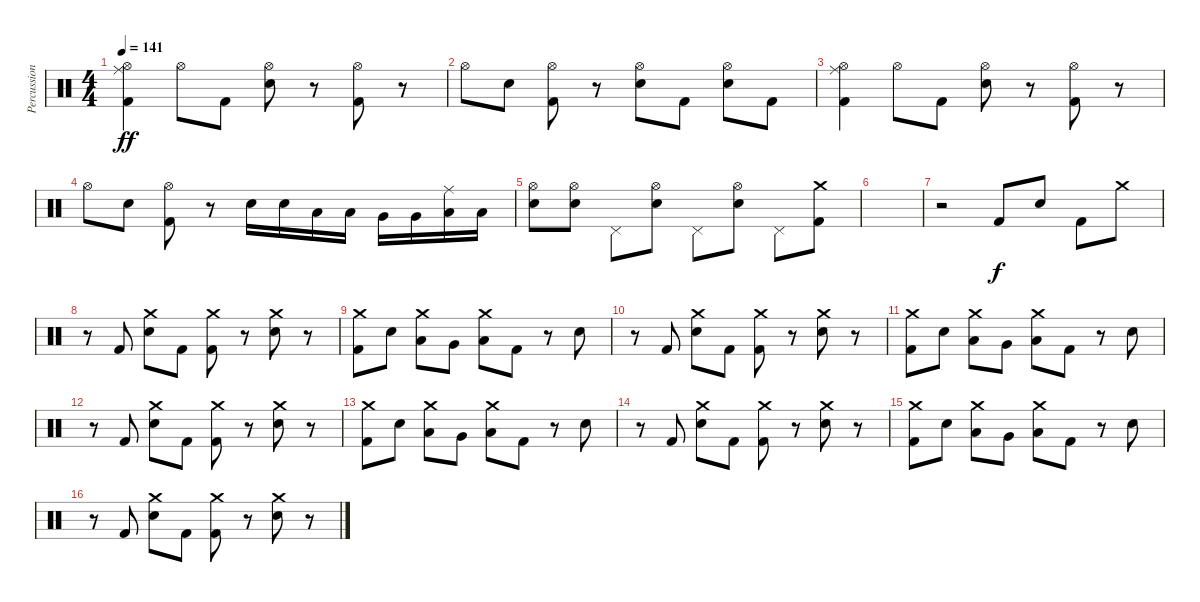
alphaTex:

\track ("Percussion" "Percussion") {instrument percussion}
\staff {score}
\articulation defaults
\ts (4 4)
\tempo 141
\clef neutral
\ks c
("Ride (middle)" "Hi-Hat (open)" "Kick (hit) 2").4{dy ff} "Hi-Hat (open)".8 "Kick (hit) 2".8 ("Hi-Hat (open)" "Electric Snare (hit)").8 r.8 ("Hi-Hat (open)" "Kick (hit) 2").8 r.8 |
"Hi-Hat (open)".8 "Electric Snare (hit)".8 ("Hi-Hat (open)" "Kick (hit) 2").8 r.8 ("Hi-Hat (open)" "Electric Snare (hit)").8 "Kick (hit) 2".8 ("Hi-Hat (open)" "Electric Snare (hit)").8 "Kick (hit) 2".8 |
("Ride (middle)" "Hi-Hat (open)" "Kick (hit) 2").4 "Hi-Hat (open)".8 "Kick (hit) 2".8 ("Hi-Hat (open)" "Electric Snare (hit)").8 r.8 ("Hi-Hat (open)" "Kick (hit) 2").8 r.8 |
"Hi-Hat (open)".8 "Electric Snare (hit)".8 ("Hi-Hat (open)" "Kick (hit) 2").8 r.8 "Electric Snare (hit)".16 "Electric Snare (hit)".16 "Low Tom (hit)".16 "Low Tom (hit)".16 "Very Low Tom (hit)".16 "Very Low Tom (hit)".16 ("Ride (middle)" "Low Floor Tom (hit)").16 "Low Floor Tom (hit)".16 |
("Hi-Hat (open)" "Electric Snare (hit)").8 ("Hi-Hat (open)" "Electric Snare (hit)").8 "Pedal Hi-Hat (hit)".8 ("Hi-Hat (open)" "Electric Snare (hit)").8 "Pedal Hi-Hat (hit)".8 ("Hi-Hat (open)" "Electric Snare (hit)").8 "Pedal Hi-Hat (hit)".8 ("Crash medium (hit)" "Kick (hit) 2").8 |
|
r.2 "Kick (hit) 2".8{dy f} "Electric Snare (hit)".8 "Kick (hit) 2".8 "Crash medium (hit)".8 |
r.8 "Kick (hit) 2".8 ("Crash medium (hit)" "Electric Snare (hit)").8 "Kick (hit) 2".8 ("Crash medium (hit)" "Kick (hit) 2").8 r.8 ("Crash medium (hit)" "Electric Snare (hit)").8 r.8 |
("Crash medium (hit)" "Kick (hit) 2").8 "Electric Snare (hit)".8 ("Crash medium (hit)" "Low Tom (hit)").8 "Very Low Tom (hit)".8 ("Crash medium (hit)" "Low Floor Tom (hit)").8 "Kick (hit) 2".8 r.8 "Electric Snare (hit)".8 |
r.8 "Kick (hit) 2".8 ("Crash medium (hit)" "Electric Snare (hit)").8 "Kick (hit) 2".8 ("Crash medium (hit)" "Kick (hit) 2").8 r.8 ("Crash medium (hit)" "Electric Snare (hit)").8 r.8 |
("Crash medium (hit)" "Kick (hit) 2").8 "Electric Snare (hit)".8 ("Crash medium (hit)" "Low Tom (hit)").8 "Very Low Tom (hit)".8 ("Crash medium (hit)" "Low Floor Tom (hit)").8 "Kick (hit) 2".8 r.8 "Electric Snare (hit)".8 |
r.8 "Kick (hit) 2".8 ("Crash medium (hit)" "Electric Snare (hit)").8 "Kick (hit) 2".8 ("Crash medium (hit)" "Kick (hit) 2").8 r.8 ("Crash medium (hit)" "Electric Snare (hit)").8 r.8 |
("Crash medium (hit)" "Kick (hit) 2").8 "Electric Snare (hit)".8 ("Crash medium (hit)" "Low Tom (hit)").8 "Very Low Tom (hit)".8 ("Crash medium (hit)" "Low Floor Tom (hit)").8 "Kick (hit) 2".8 r.8 "Electric Snare (hit)".8 |
r.8 "Kick (hit) 2".8 ("Crash medium (hit)" "Electric Snare (hit)").8 "Kick (hit) 2".8 ("Crash medium (hit)" "Kick (hit) 2").8 r.8 ("Crash medium (hit)" "Electric Snare (hit)").8 r.8 |
("Crash medium (hit)" "Kick (hit) 2").8 "Electric Snare (hit)".8 ("Crash medium (hit)" "Low Tom (hit)").8 "Very Low Tom (hit)".8 ("Crash medium (hit)" "Low Floor Tom (hit)").8 "Kick (hit) 2".8 r.8 "Electric Snare (hit)".8 |
r.8 "Kick (hit) 2".8 ("Crash medium (hit)" "Electric Snare (hit)").8 "Kick (hit) 2".8 ("Crash medium (hit)" "Kick (hit) 2").8 r.8 ("Crash medium (hit)" "Electric Snare (hit)").8 r.8
